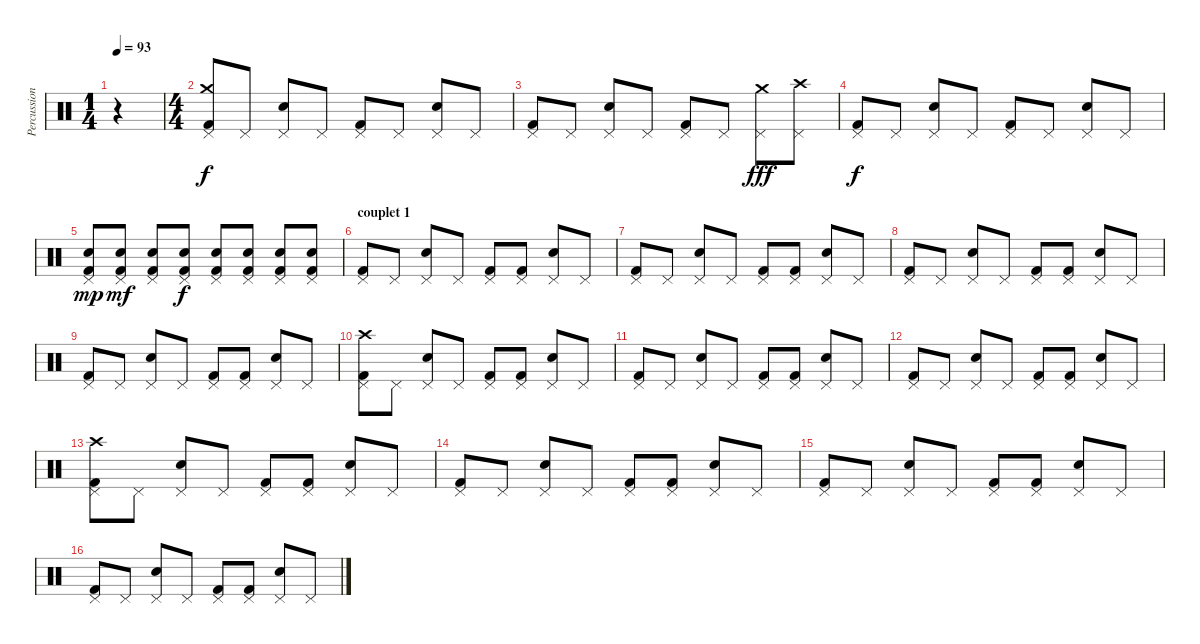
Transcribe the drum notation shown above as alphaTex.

\track ("Percussions" "Percussion") {instrument percussion}
\staff {score}
\articulation defaults
\ts (1 4)
\tempo 93
\clef neutral
\ks c
r.4{dy f} |
\ts (4 4)
("Pedal Hi-Hat (hit)" "Crash medium (hit)" "Kick (hit) 2").8 "Pedal Hi-Hat (hit)".8 ("Pedal Hi-Hat (hit)" "Electric Snare (hit)").8 "Pedal Hi-Hat (hit)".8 ("Pedal Hi-Hat (hit)" "Kick (hit) 2").8 "Pedal Hi-Hat (hit)".8 ("Pedal Hi-Hat (hit)" "Electric Snare (hit)").8 "Pedal Hi-Hat (hit)".8 |
("Pedal Hi-Hat (hit)" "Kick (hit) 2").8 "Pedal Hi-Hat (hit)".8 ("Pedal Hi-Hat (hit)" "Electric Snare (hit)").8 "Pedal Hi-Hat (hit)".8 ("Pedal Hi-Hat (hit)" "Kick (hit) 2").8 "Pedal Hi-Hat (hit)".8 ("Pedal Hi-Hat (hit)" "Crash medium (hit)").8{dy fff} ("Pedal Hi-Hat (hit)" "Crash high (hit)").8 |
("Pedal Hi-Hat (hit)" "Kick (hit) 2").8{dy f} "Pedal Hi-Hat (hit)".8 ("Pedal Hi-Hat (hit)" "Electric Snare (hit)").8 "Pedal Hi-Hat (hit)".8 ("Pedal Hi-Hat (hit)" "Kick (hit) 2").8 "Pedal Hi-Hat (hit)".8 ("Pedal Hi-Hat (hit)" "Electric Snare (hit)").8 "Pedal Hi-Hat (hit)".8 |
("Pedal Hi-Hat (hit)" "Electric Snare (hit)" "Kick (hit) 2").8{dy mp} ("Pedal Hi-Hat (hit)" "Electric Snare (hit)" "Kick (hit) 2").8{dy mf} ("Pedal Hi-Hat (hit)" "Electric Snare (hit)" "Kick (hit) 2").8 ("Pedal Hi-Hat (hit)" "Electric Snare (hit)" "Kick (hit) 2").8{dy f} ("Pedal Hi-Hat (hit)" "Electric Snare (hit)" "Kick (hit) 2").8 ("Pedal Hi-Hat (hit)" "Electric Snare (hit)" "Kick (hit) 2").8 ("Pedal Hi-Hat (hit)" "Electric Snare (hit)" "Kick (hit) 2").8 ("Pedal Hi-Hat (hit)" "Electric Snare (hit)" "Kick (hit) 2").8 |
\section ("" "couplet 1")
("Pedal Hi-Hat (hit)" "Kick (hit) 2").8 "Pedal Hi-Hat (hit)".8 ("Pedal Hi-Hat (hit)" "Electric Snare (hit)").8 "Pedal Hi-Hat (hit)".8 ("Pedal Hi-Hat (hit)" "Kick (hit) 2").8 ("Pedal Hi-Hat (hit)" "Kick (hit) 2").8 ("Pedal Hi-Hat (hit)" "Electric Snare (hit)").8 "Pedal Hi-Hat (hit)".8 |
("Pedal Hi-Hat (hit)" "Kick (hit) 2").8 "Pedal Hi-Hat (hit)".8 ("Pedal Hi-Hat (hit)" "Electric Snare (hit)").8 "Pedal Hi-Hat (hit)".8 ("Pedal Hi-Hat (hit)" "Kick (hit) 2").8 ("Pedal Hi-Hat (hit)" "Kick (hit) 2").8 ("Pedal Hi-Hat (hit)" "Electric Snare (hit)").8 "Pedal Hi-Hat (hit)".8 |
("Pedal Hi-Hat (hit)" "Kick (hit) 2").8 "Pedal Hi-Hat (hit)".8 ("Pedal Hi-Hat (hit)" "Electric Snare (hit)").8 "Pedal Hi-Hat (hit)".8 ("Pedal Hi-Hat (hit)" "Kick (hit) 2").8 ("Pedal Hi-Hat (hit)" "Kick (hit) 2").8 ("Pedal Hi-Hat (hit)" "Electric Snare (hit)").8 "Pedal Hi-Hat (hit)".8 |
("Pedal Hi-Hat (hit)" "Kick (hit) 2").8 "Pedal Hi-Hat (hit)".8 ("Pedal Hi-Hat (hit)" "Electric Snare (hit)").8 "Pedal Hi-Hat (hit)".8 ("Pedal Hi-Hat (hit)" "Kick (hit) 2").8 ("Pedal Hi-Hat (hit)" "Kick (hit) 2").8 ("Pedal Hi-Hat (hit)" "Electric Snare (hit)").8 "Pedal Hi-Hat (hit)".8 |
("Pedal Hi-Hat (hit)" "Crash high (hit)" "Kick (hit) 2").8 "Pedal Hi-Hat (hit)".8 ("Pedal Hi-Hat (hit)" "Electric Snare (hit)").8 "Pedal Hi-Hat (hit)".8 ("Pedal Hi-Hat (hit)" "Kick (hit) 2").8 ("Pedal Hi-Hat (hit)" "Kick (hit) 2").8 ("Pedal Hi-Hat (hit)" "Electric Snare (hit)").8 "Pedal Hi-Hat (hit)".8 |
("Pedal Hi-Hat (hit)" "Kick (hit) 2").8 "Pedal Hi-Hat (hit)".8 ("Pedal Hi-Hat (hit)" "Electric Snare (hit)").8 "Pedal Hi-Hat (hit)".8 ("Pedal Hi-Hat (hit)" "Kick (hit) 2").8 ("Pedal Hi-Hat (hit)" "Kick (hit) 2").8 ("Pedal Hi-Hat (hit)" "Electric Snare (hit)").8 "Pedal Hi-Hat (hit)".8 |
("Pedal Hi-Hat (hit)" "Kick (hit) 2").8 "Pedal Hi-Hat (hit)".8 ("Pedal Hi-Hat (hit)" "Electric Snare (hit)").8 "Pedal Hi-Hat (hit)".8 ("Pedal Hi-Hat (hit)" "Kick (hit) 2").8 ("Pedal Hi-Hat (hit)" "Kick (hit) 2").8 ("Pedal Hi-Hat (hit)" "Electric Snare (hit)").8 "Pedal Hi-Hat (hit)".8 |
("Pedal Hi-Hat (hit)" "Crash high (hit)" "Kick (hit) 2").8 "Pedal Hi-Hat (hit)".8 ("Pedal Hi-Hat (hit)" "Electric Snare (hit)").8 "Pedal Hi-Hat (hit)".8 ("Pedal Hi-Hat (hit)" "Kick (hit) 2").8 ("Pedal Hi-Hat (hit)" "Kick (hit) 2").8 ("Pedal Hi-Hat (hit)" "Electric Snare (hit)").8 "Pedal Hi-Hat (hit)".8 |
("Pedal Hi-Hat (hit)" "Kick (hit) 2").8 "Pedal Hi-Hat (hit)".8 ("Pedal Hi-Hat (hit)" "Electric Snare (hit)").8 "Pedal Hi-Hat (hit)".8 ("Pedal Hi-Hat (hit)" "Kick (hit) 2").8 ("Pedal Hi-Hat (hit)" "Kick (hit) 2").8 ("Pedal Hi-Hat (hit)" "Electric Snare (hit)").8 "Pedal Hi-Hat (hit)".8 |
("Pedal Hi-Hat (hit)" "Kick (hit) 2").8 "Pedal Hi-Hat (hit)".8 ("Pedal Hi-Hat (hit)" "Electric Snare (hit)").8 "Pedal Hi-Hat (hit)".8 ("Pedal Hi-Hat (hit)" "Kick (hit) 2").8 ("Pedal Hi-Hat (hit)" "Kick (hit) 2").8 ("Pedal Hi-Hat (hit)" "Electric Snare (hit)").8 "Pedal Hi-Hat (hit)".8 |
("Pedal Hi-Hat (hit)" "Kick (hit) 2").8 "Pedal Hi-Hat (hit)".8 ("Pedal Hi-Hat (hit)" "Electric Snare (hit)").8 "Pedal Hi-Hat (hit)".8 ("Pedal Hi-Hat (hit)" "Kick (hit) 2").8 ("Pedal Hi-Hat (hit)" "Kick (hit) 2").8 ("Pedal Hi-Hat (hit)" "Electric Snare (hit)").8 "Pedal Hi-Hat (hit)".8
